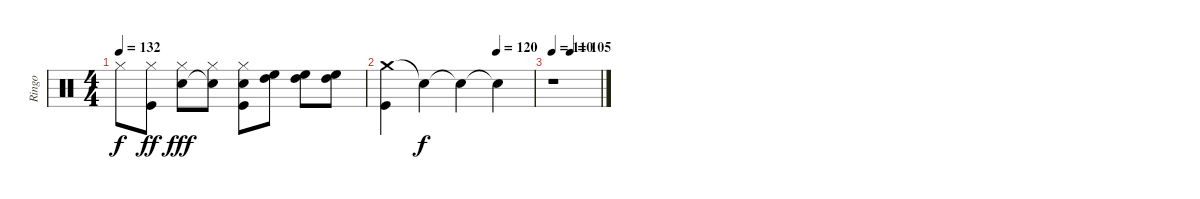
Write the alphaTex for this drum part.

\track ("Ringo" "Ringo") {instrument percussion}
\staff {score}
\articulation defaults
\ts (4 4)
\tempo 132
\clef neutral
\ks c "Hi-Hat (closed)".8{dy f}
("Hi-Hat (closed)" "Kick (hit)").8{dy ff} ("Hi-Hat (closed)" "Electric Snare (hit)").8{dy fff} ("Hi-Hat (closed)" "Snare (hit)"{t}).8 ("Hi-Hat (closed)" "Electric Snare (hit)" "Kick (hit)").8 ("High Tom (hit)" "High Floor Tom (hit)").8 ("High Tom (hit)" "High Floor Tom (hit)").8 ("High Tom (hit)" "High Floor Tom (hit)").8 |
\tempo (120 0.75)
("Crash medium (hit)" "Kick (hit)").4 "Snare (hit)"{t}.4{dy f} "Snare (hit)"{t}.4 "Snare (hit)"{t}.4 |
\tempo 110
\tempo (105 0.375)
r.1
